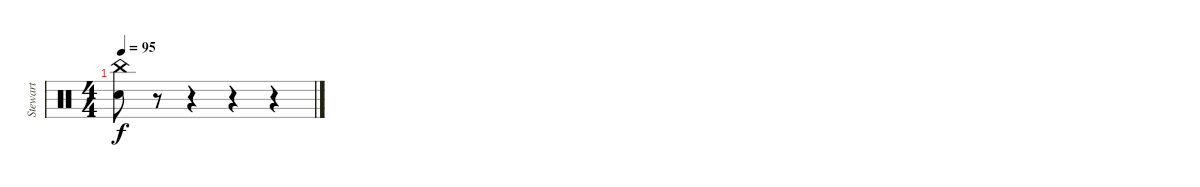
\track ("Stewart" "Stewart") {instrument percussion}
\staff {score}
\articulation defaults
\ts (4 4)
\tempo 95
\clef neutral
\ks c
("China (hit)" "Electric Snare (hit)").8{dy f} r.8 r.4 r.4 r.4
